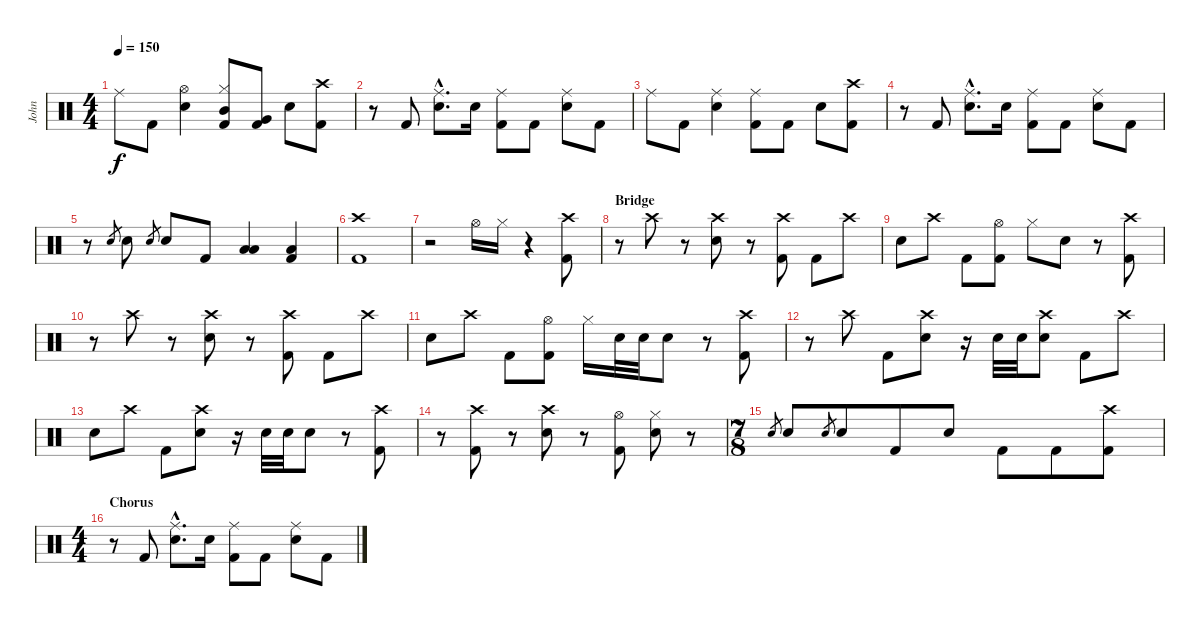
\track ("John" "John") {instrument percussion}
\staff {score}
\articulation defaults
\ts (4 4)
\tempo 150
\clef neutral
\ks c "Ride (middle)".8{dy f} "Kick (hit) 2".8
("Hi-Hat (open)" "Electric Snare (hit)").4 ("Hi-Hat (closed)" "Mid Tom (hit)" "Kick (hit) 2").8 ("Very Low Tom (hit)" "Kick (hit) 2").8 "Electric Snare (hit)".8 ("Crash high (hit)" "Kick (hit) 2").8 |
r.8 "Kick (hit) 2".8 ("Ride (middle)"{hac} "Electric Snare (hit)"{hac}).8{d} "Electric Snare (hit)".16 ("Ride (middle)" "Kick (hit) 2").8 "Kick (hit) 2".8 ("Ride (middle)" "Electric Snare (hit)").8 "Kick (hit) 2".8 |
"Ride (middle)".8 "Kick (hit) 2".8 ("Ride (middle)" "Electric Snare (hit)").4 ("Ride (middle)" "Kick (hit) 2").8 "Kick (hit) 2".8 "Electric Snare (hit)".8 ("Crash high (hit)" "Kick (hit) 2").8 |
r.8 "Kick (hit) 2".8 ("Ride (middle)"{hac} "Electric Snare (hit)"{hac}).8{d} "Electric Snare (hit)".16 ("Ride (middle)" "Kick (hit) 2").8 "Kick (hit) 2".8 ("Ride (middle)" "Electric Snare (hit)").8 "Kick (hit) 2".8 |
r.8 "Electric Snare (hit)".8{gr} "Electric Snare (hit)".8 "Electric Snare (hit)".8{gr} "Electric Snare (hit)".8 "Kick (hit) 2".8 ("Low Tom (hit)" "Low Floor Tom (hit)").4 ("Low Floor Tom (hit)" "Kick (hit) 2").4 |
("Crash high (hit)" "Kick (hit) 2").1 |
r.2 "Hi-Hat (open)".16 "Hi-Hat (closed)".16 r.4 ("Crash high (hit)" "Kick (hit) 2").8 |
\section ("" "Bridge")
r.8 "Crash high (hit)".8 r.8 ("Crash high (hit)" "Electric Snare (hit)").8 r.8 ("Crash high (hit)" "Kick (hit) 2").8 "Kick (hit) 2".8 "Crash high (hit)".8 |
"Electric Snare (hit)".8 "Crash high (hit)".8 "Kick (hit) 2".8 ("Hi-Hat (open)" "Kick (hit) 2").8 "Hi-Hat (closed)".8 "Electric Snare (hit)".8 r.8 ("Crash high (hit)" "Kick (hit) 2").8 |
r.8 "Crash high (hit)".8 r.8 ("Crash high (hit)" "Electric Snare (hit)").8 r.8 ("Crash high (hit)" "Kick (hit) 2").8 "Kick (hit) 2".8 "Crash high (hit)".8 |
"Electric Snare (hit)".8 "Crash high (hit)".8 "Kick (hit) 2".8 ("Hi-Hat (open)" "Kick (hit) 2").8 "Hi-Hat (closed)".16 "Electric Snare (hit)".32 "Electric Snare (hit)".32 "Electric Snare (hit)".8 r.8 ("Crash high (hit)" "Kick (hit) 2").8 |
r.8 "Crash high (hit)".8 "Kick (hit) 2".8 ("Crash high (hit)" "Electric Snare (hit)").8 r.16 "Electric Snare (hit)".32 "Electric Snare (hit)".32 ("Crash high (hit)" "Electric Snare (hit)").8 "Kick (hit) 2".8 "Crash high (hit)".8 |
"Electric Snare (hit)".8 "Crash high (hit)".8 "Kick (hit) 2".8 ("Crash high (hit)" "Electric Snare (hit)").8 r.16 "Electric Snare (hit)".32 "Electric Snare (hit)".32 "Electric Snare (hit)".8 r.8 ("Crash high (hit)" "Kick (hit) 2").8 |
r.8 ("Crash high (hit)" "Kick (hit) 2").8 r.8 ("Crash high (hit)" "Electric Snare (hit)").8 r.8 ("Hi-Hat (open)" "Kick (hit) 2").8 ("Hi-Hat (closed)" "Electric Snare (hit)").8 r.8 |
\ts (7 8)
"Electric Snare (hit)".8{gr} "Electric Snare (hit)".8 "Electric Snare (hit)".8{gr} "Electric Snare (hit)".8 "Kick (hit) 2".8 "Electric Snare (hit)".8 "Kick (hit) 2".8 "Kick (hit) 2".8 ("Crash high (hit)" "Kick (hit) 2").8 |
\ts (4 4)
\section ("" "Chorus")
r.8 "Kick (hit) 2".8 ("Ride (middle)"{hac} "Electric Snare (hit)"{hac}).8{d} "Electric Snare (hit)".16 ("Ride (middle)" "Kick (hit) 2").8 "Kick (hit) 2".8 ("Ride (middle)" "Electric Snare (hit)").8 "Kick (hit) 2".8
